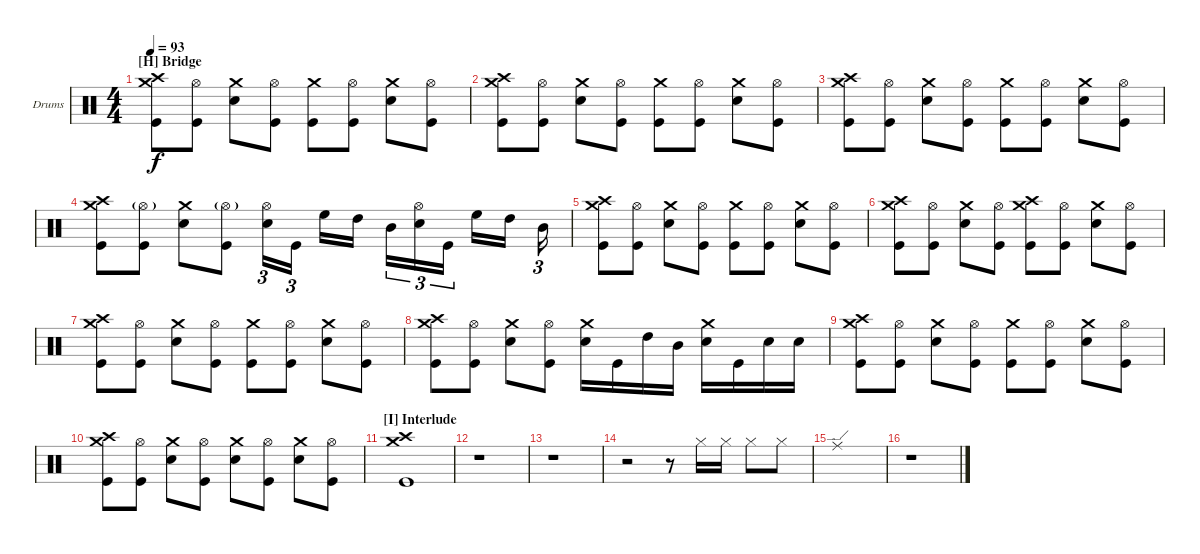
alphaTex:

\bracketExtendMode groupsimilarinstruments
\firstSystemTrackNameOrientation horizontal
\otherSystemsTrackNameOrientation horizontal
\track ("Drums (Tony Palermo)" "Drums") {instrument percussion}
\staff {score}
\articulation defaults
\ts (4 4)
\section ("H" "Bridge")
\tempo 93
\clef neutral
\ks c
("Crash medium (hit)" "Crash high (hit)" "Kick (hit)").8{dy f} ("Hi-Hat (open)" "Kick (hit)").8 ("Crash medium (hit)" "Snare (hit) 2").8 ("Hi-Hat (open)" "Kick (hit)").8 ("Crash medium (hit)" "Kick (hit)").8 ("Hi-Hat (open)" "Kick (hit)").8 ("Crash medium (hit)" "Snare (hit) 2").8 ("Hi-Hat (open)" "Kick (hit)").8 |
("Crash medium (hit)" "Crash high (hit)" "Kick (hit)").8 ("Hi-Hat (open)" "Kick (hit)").8 ("Crash medium (hit)" "Snare (hit) 2").8 ("Hi-Hat (open)" "Kick (hit)").8 ("Crash medium (hit)" "Kick (hit)").8 ("Hi-Hat (open)" "Kick (hit)").8 ("Crash medium (hit)" "Snare (hit) 2").8 ("Hi-Hat (open)" "Kick (hit)").8 |
("Crash medium (hit)" "Crash high (hit)" "Kick (hit)").8 ("Hi-Hat (open)" "Kick (hit)").8 ("Crash medium (hit)" "Snare (hit) 2").8 ("Hi-Hat (open)" "Kick (hit)").8 ("Crash medium (hit)" "Kick (hit)").8 ("Hi-Hat (open)" "Kick (hit)").8 ("Crash medium (hit)" "Snare (hit) 2").8 ("Hi-Hat (open)" "Kick (hit)").8 |
("Crash medium (hit)" "Crash high (hit)" "Kick (hit)").8 ("Hi-Hat (open)"{g} "Kick (hit)").8 ("Crash medium (hit)" "Snare (hit) 2").8 ("Hi-Hat (open)"{g} "Kick (hit)").8 ("Hi-Hat (open)" "Snare (hit) 2").16{tu (3 2)} "Kick (hit)".16{tu (3 2)} "High Floor Tom (hit)".16 "High Tom (hit)".16 "Mid Tom (hit)".16{tu (3 2)} ("Hi-Hat (open)" "Snare (hit) 2").16{tu (3 2)} "Kick (hit)".16{tu (3 2)} "High Floor Tom (hit)".16 "High Tom (hit)".16 "Mid Tom (hit)".16{tu (3 2)} |
("Crash medium (hit)" "Crash high (hit)" "Kick (hit)").8 ("Hi-Hat (open)" "Kick (hit)").8 ("Crash medium (hit)" "Snare (hit) 2").8 ("Hi-Hat (open)" "Kick (hit)").8 ("Crash medium (hit)" "Kick (hit)").8 ("Hi-Hat (open)" "Kick (hit)").8 ("Crash medium (hit)" "Snare (hit) 2").8 ("Hi-Hat (open)" "Kick (hit)").8 |
("Crash medium (hit)" "Crash high (hit)" "Kick (hit)").8 ("Hi-Hat (open)" "Kick (hit)").8 ("Crash medium (hit)" "Snare (hit) 2").8 ("Hi-Hat (open)" "Kick (hit)").8 ("Crash high (hit)" "Crash medium (hit)" "Kick (hit)").8 ("Hi-Hat (open)" "Kick (hit)").8 ("Crash medium (hit)" "Snare (hit) 2").8 ("Hi-Hat (open)" "Kick (hit)").8 |
("Crash medium (hit)" "Crash high (hit)" "Kick (hit)").8 ("Hi-Hat (open)" "Kick (hit)").8 ("Crash medium (hit)" "Snare (hit) 2").8 ("Hi-Hat (open)" "Kick (hit)").8 ("Crash medium (hit)" "Kick (hit)").8 ("Hi-Hat (open)" "Kick (hit)").8 ("Crash medium (hit)" "Snare (hit) 2").8 ("Hi-Hat (open)" "Kick (hit)").8 |
("Crash medium (hit)" "Crash high (hit)" "Kick (hit)").8 ("Hi-Hat (open)" "Kick (hit)").8 ("Crash medium (hit)" "Snare (hit) 2").8 ("Hi-Hat (open)" "Kick (hit)").8 ("Crash medium (hit)" "Snare (hit) 2").16 "Kick (hit)".16 "High Tom (hit)".16 "Mid Tom (hit)".16 ("Crash medium (hit)" "Snare (hit) 2").16 "Kick (hit)".16 "Snare (hit) 2".16 "Snare (hit) 2".16 |
("Crash medium (hit)" "Crash high (hit)" "Kick (hit)").8 ("Hi-Hat (open)" "Kick (hit)").8 ("Crash medium (hit)" "Snare (hit) 2").8 ("Hi-Hat (open)" "Kick (hit)").8 ("Crash medium (hit)" "Kick (hit)").8 ("Hi-Hat (open)" "Kick (hit)").8 ("Crash medium (hit)" "Snare (hit) 2").8 ("Hi-Hat (open)" "Kick (hit)").8 |
("Crash medium (hit)" "Crash high (hit)" "Kick (hit)").8 ("Hi-Hat (open)" "Kick (hit)").8 ("Crash medium (hit)" "Snare (hit) 2").8 ("Hi-Hat (open)" "Kick (hit)").8 ("Crash medium (hit)" "Snare (hit) 2").8 ("Hi-Hat (open)" "Kick (hit)").8 ("Crash medium (hit)" "Snare (hit) 2").8 ("Hi-Hat (open)" "Kick (hit)").8 |
\section ("I" "Interlude")
("Crash medium (hit)" "Crash high (hit)" "Kick (hit)").1 |
r.1 |
r.1 |
r.2 r.8 "Hi-Hat (closed)".16 "Hi-Hat (closed)".16 "Hi-Hat (closed)".8 "Hi-Hat (closed)".8 |
"Ride (edge)".1 |
r.1
